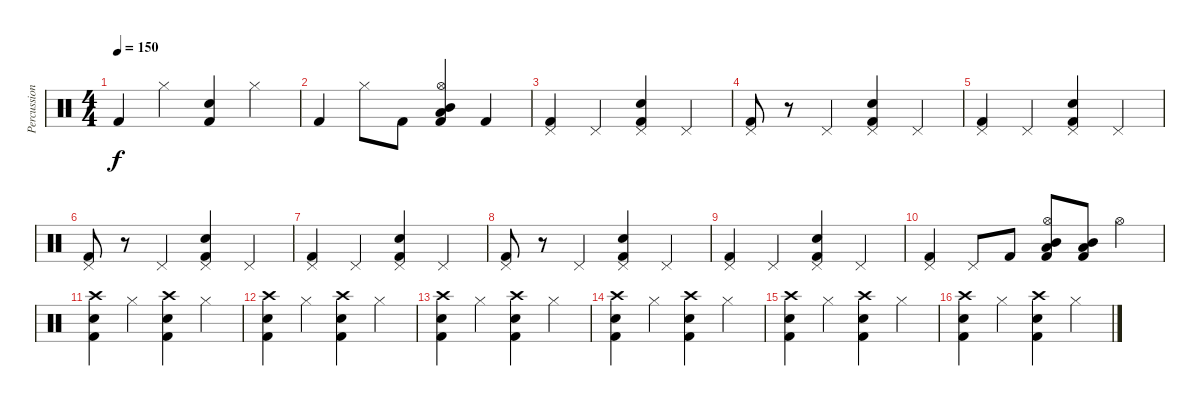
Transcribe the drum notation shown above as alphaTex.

\track ("Percussions" "Percussion") {instrument percussion}
\staff {score}
\articulation defaults
\ts (4 4)
\tempo 150
\clef neutral
\ks c "Kick (hit) 2".4{dy f} "Hi-Hat (closed)".4
("Electric Snare (hit)" "Kick (hit) 2").4 "Hi-Hat (closed)".4 |
"Kick (hit) 2".4 "Hi-Hat (closed)".8 "Kick (hit) 2".8 ("Hi-Hat (open)" "Low Tom (hit)" "Mid Tom (hit)" "Kick (hit) 2").4 "Kick (hit) 2".4 |
("Pedal Hi-Hat (hit)" "Kick (hit) 2").4 "Pedal Hi-Hat (hit)".4 ("Pedal Hi-Hat (hit)" "Electric Snare (hit)" "Kick (hit) 2").4 "Pedal Hi-Hat (hit)".4 |
("Pedal Hi-Hat (hit)" "Kick (hit) 2").8 r.8 "Pedal Hi-Hat (hit)".4 ("Pedal Hi-Hat (hit)" "Electric Snare (hit)" "Kick (hit) 2").4 "Pedal Hi-Hat (hit)".4 |
("Pedal Hi-Hat (hit)" "Kick (hit) 2").4 "Pedal Hi-Hat (hit)".4 ("Pedal Hi-Hat (hit)" "Electric Snare (hit)" "Kick (hit) 2").4 "Pedal Hi-Hat (hit)".4 |
("Pedal Hi-Hat (hit)" "Kick (hit) 2").8 r.8 "Pedal Hi-Hat (hit)".4 ("Pedal Hi-Hat (hit)" "Electric Snare (hit)" "Kick (hit) 2").4 "Pedal Hi-Hat (hit)".4 |
("Pedal Hi-Hat (hit)" "Kick (hit) 2").4 "Pedal Hi-Hat (hit)".4 ("Pedal Hi-Hat (hit)" "Electric Snare (hit)" "Kick (hit) 2").4 "Pedal Hi-Hat (hit)".4 |
("Pedal Hi-Hat (hit)" "Kick (hit) 2").8 r.8 "Pedal Hi-Hat (hit)".4 ("Pedal Hi-Hat (hit)" "Electric Snare (hit)" "Kick (hit) 2").4 "Pedal Hi-Hat (hit)".4 |
("Pedal Hi-Hat (hit)" "Kick (hit) 2").4 "Pedal Hi-Hat (hit)".4 ("Pedal Hi-Hat (hit)" "Electric Snare (hit)" "Kick (hit) 2").4 "Pedal Hi-Hat (hit)".4 |
("Pedal Hi-Hat (hit)" "Kick (hit) 2").4 "Pedal Hi-Hat (hit)".8 "Kick (hit) 2".8 ("Hi-Hat (open)" "Low Tom (hit)" "Mid Tom (hit)" "Kick (hit) 2").8 ("Low Tom (hit)" "Mid Tom (hit)" "Kick (hit) 2").8 "Hi-Hat (open)".4 |
("Crash high (hit)" "Electric Snare (hit)" "Kick (hit) 2").4 "Hi-Hat (closed)".4 ("Crash high (hit)" "Electric Snare (hit)" "Kick (hit) 2").4 "Hi-Hat (closed)".4 |
("Crash high (hit)" "Electric Snare (hit)" "Kick (hit) 2").4 "Hi-Hat (closed)".4 ("Crash high (hit)" "Electric Snare (hit)" "Kick (hit) 2").4 "Hi-Hat (closed)".4 |
("Crash high (hit)" "Electric Snare (hit)" "Kick (hit) 2").4 "Hi-Hat (closed)".4 ("Crash high (hit)" "Electric Snare (hit)" "Kick (hit) 2").4 "Hi-Hat (closed)".4 |
("Crash high (hit)" "Electric Snare (hit)" "Kick (hit) 2").4 "Hi-Hat (closed)".4 ("Crash high (hit)" "Electric Snare (hit)" "Kick (hit) 2").4 "Hi-Hat (closed)".4 |
("Crash high (hit)" "Electric Snare (hit)" "Kick (hit) 2").4 "Hi-Hat (closed)".4 ("Crash high (hit)" "Electric Snare (hit)" "Kick (hit) 2").4 "Hi-Hat (closed)".4 |
("Crash high (hit)" "Electric Snare (hit)" "Kick (hit) 2").4 "Hi-Hat (closed)".4 ("Crash high (hit)" "Electric Snare (hit)" "Kick (hit) 2").4 "Hi-Hat (closed)".4
